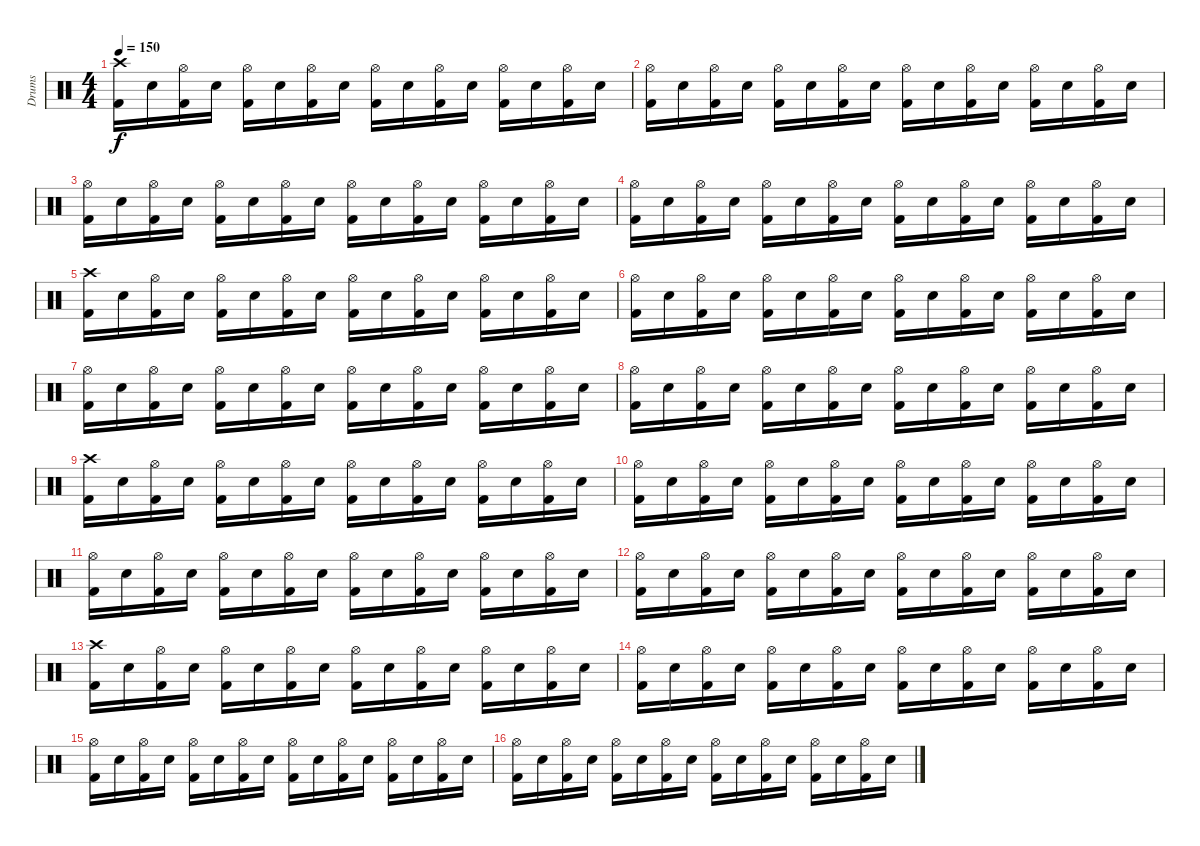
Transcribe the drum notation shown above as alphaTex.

\track ("Drums" "Drums") {instrument percussion}
\staff {score}
\articulation defaults
\ts (4 4)
\tempo 150
\clef neutral
\ks c
("Kick (hit) 2" "Crash high (hit)").16{dy f} "Electric Snare (hit)".16 ("Kick (hit) 2" "Hi-Hat (open)").16 "Electric Snare (hit)".16 ("Kick (hit) 2" "Hi-Hat (open)").16 "Electric Snare (hit)".16 ("Kick (hit) 2" "Hi-Hat (open)").16 "Electric Snare (hit)".16 ("Kick (hit) 2" "Hi-Hat (open)").16 "Electric Snare (hit)".16 ("Kick (hit) 2" "Hi-Hat (open)").16 "Electric Snare (hit)".16 ("Kick (hit) 2" "Hi-Hat (open)").16 "Electric Snare (hit)".16 ("Kick (hit) 2" "Hi-Hat (open)").16 "Electric Snare (hit)".16 |
("Kick (hit) 2" "Hi-Hat (open)").16 "Electric Snare (hit)".16 ("Kick (hit) 2" "Hi-Hat (open)").16 "Electric Snare (hit)".16 ("Kick (hit) 2" "Hi-Hat (open)").16 "Electric Snare (hit)".16 ("Kick (hit) 2" "Hi-Hat (open)").16 "Electric Snare (hit)".16 ("Kick (hit) 2" "Hi-Hat (open)").16 "Electric Snare (hit)".16 ("Kick (hit) 2" "Hi-Hat (open)").16 "Electric Snare (hit)".16 ("Kick (hit) 2" "Hi-Hat (open)").16 "Electric Snare (hit)".16 ("Kick (hit) 2" "Hi-Hat (open)").16 "Electric Snare (hit)".16 |
("Kick (hit) 2" "Hi-Hat (open)").16 "Electric Snare (hit)".16 ("Kick (hit) 2" "Hi-Hat (open)").16 "Electric Snare (hit)".16 ("Kick (hit) 2" "Hi-Hat (open)").16 "Electric Snare (hit)".16 ("Kick (hit) 2" "Hi-Hat (open)").16 "Electric Snare (hit)".16 ("Kick (hit) 2" "Hi-Hat (open)").16 "Electric Snare (hit)".16 ("Kick (hit) 2" "Hi-Hat (open)").16 "Electric Snare (hit)".16 ("Kick (hit) 2" "Hi-Hat (open)").16 "Electric Snare (hit)".16 ("Kick (hit) 2" "Hi-Hat (open)").16 "Electric Snare (hit)".16 |
("Kick (hit) 2" "Hi-Hat (open)").16 "Electric Snare (hit)".16 ("Kick (hit) 2" "Hi-Hat (open)").16 "Electric Snare (hit)".16 ("Kick (hit) 2" "Hi-Hat (open)").16 "Electric Snare (hit)".16 ("Kick (hit) 2" "Hi-Hat (open)").16 "Electric Snare (hit)".16 ("Kick (hit) 2" "Hi-Hat (open)").16 "Electric Snare (hit)".16 ("Kick (hit) 2" "Hi-Hat (open)").16 "Electric Snare (hit)".16 ("Kick (hit) 2" "Hi-Hat (open)").16 "Electric Snare (hit)".16 ("Kick (hit) 2" "Hi-Hat (open)").16 "Electric Snare (hit)".16 |
("Kick (hit) 2" "Crash high (hit)").16 "Electric Snare (hit)".16 ("Kick (hit) 2" "Hi-Hat (open)").16 "Electric Snare (hit)".16 ("Kick (hit) 2" "Hi-Hat (open)").16 "Electric Snare (hit)".16 ("Kick (hit) 2" "Hi-Hat (open)").16 "Electric Snare (hit)".16 ("Kick (hit) 2" "Hi-Hat (open)").16 "Electric Snare (hit)".16 ("Kick (hit) 2" "Hi-Hat (open)").16 "Electric Snare (hit)".16 ("Kick (hit) 2" "Hi-Hat (open)").16 "Electric Snare (hit)".16 ("Kick (hit) 2" "Hi-Hat (open)").16 "Electric Snare (hit)".16 |
("Kick (hit) 2" "Hi-Hat (open)").16 "Electric Snare (hit)".16 ("Kick (hit) 2" "Hi-Hat (open)").16 "Electric Snare (hit)".16 ("Kick (hit) 2" "Hi-Hat (open)").16 "Electric Snare (hit)".16 ("Kick (hit) 2" "Hi-Hat (open)").16 "Electric Snare (hit)".16 ("Kick (hit) 2" "Hi-Hat (open)").16 "Electric Snare (hit)".16 ("Kick (hit) 2" "Hi-Hat (open)").16 "Electric Snare (hit)".16 ("Kick (hit) 2" "Hi-Hat (open)").16 "Electric Snare (hit)".16 ("Kick (hit) 2" "Hi-Hat (open)").16 "Electric Snare (hit)".16 |
("Kick (hit) 2" "Hi-Hat (open)").16 "Electric Snare (hit)".16 ("Kick (hit) 2" "Hi-Hat (open)").16 "Electric Snare (hit)".16 ("Kick (hit) 2" "Hi-Hat (open)").16 "Electric Snare (hit)".16 ("Kick (hit) 2" "Hi-Hat (open)").16 "Electric Snare (hit)".16 ("Kick (hit) 2" "Hi-Hat (open)").16 "Electric Snare (hit)".16 ("Kick (hit) 2" "Hi-Hat (open)").16 "Electric Snare (hit)".16 ("Kick (hit) 2" "Hi-Hat (open)").16 "Electric Snare (hit)".16 ("Kick (hit) 2" "Hi-Hat (open)").16 "Electric Snare (hit)".16 |
("Kick (hit) 2" "Hi-Hat (open)").16 "Electric Snare (hit)".16 ("Kick (hit) 2" "Hi-Hat (open)").16 "Electric Snare (hit)".16 ("Kick (hit) 2" "Hi-Hat (open)").16 "Electric Snare (hit)".16 ("Kick (hit) 2" "Hi-Hat (open)").16 "Electric Snare (hit)".16 ("Kick (hit) 2" "Hi-Hat (open)").16 "Electric Snare (hit)".16 ("Kick (hit) 2" "Hi-Hat (open)").16 "Electric Snare (hit)".16 ("Kick (hit) 2" "Hi-Hat (open)").16 "Electric Snare (hit)".16 ("Kick (hit) 2" "Hi-Hat (open)").16 "Electric Snare (hit)".16 |
("Kick (hit) 2" "Crash high (hit)").16 "Electric Snare (hit)".16 ("Kick (hit) 2" "Hi-Hat (open)").16 "Electric Snare (hit)".16 ("Kick (hit) 2" "Hi-Hat (open)").16 "Electric Snare (hit)".16 ("Kick (hit) 2" "Hi-Hat (open)").16 "Electric Snare (hit)".16 ("Kick (hit) 2" "Hi-Hat (open)").16 "Electric Snare (hit)".16 ("Kick (hit) 2" "Hi-Hat (open)").16 "Electric Snare (hit)".16 ("Kick (hit) 2" "Hi-Hat (open)").16 "Electric Snare (hit)".16 ("Kick (hit) 2" "Hi-Hat (open)").16 "Electric Snare (hit)".16 |
("Kick (hit) 2" "Hi-Hat (open)").16 "Electric Snare (hit)".16 ("Kick (hit) 2" "Hi-Hat (open)").16 "Electric Snare (hit)".16 ("Kick (hit) 2" "Hi-Hat (open)").16 "Electric Snare (hit)".16 ("Kick (hit) 2" "Hi-Hat (open)").16 "Electric Snare (hit)".16 ("Kick (hit) 2" "Hi-Hat (open)").16 "Electric Snare (hit)".16 ("Kick (hit) 2" "Hi-Hat (open)").16 "Electric Snare (hit)".16 ("Kick (hit) 2" "Hi-Hat (open)").16 "Electric Snare (hit)".16 ("Kick (hit) 2" "Hi-Hat (open)").16 "Electric Snare (hit)".16 |
("Kick (hit) 2" "Hi-Hat (open)").16 "Electric Snare (hit)".16 ("Kick (hit) 2" "Hi-Hat (open)").16 "Electric Snare (hit)".16 ("Kick (hit) 2" "Hi-Hat (open)").16 "Electric Snare (hit)".16 ("Kick (hit) 2" "Hi-Hat (open)").16 "Electric Snare (hit)".16 ("Kick (hit) 2" "Hi-Hat (open)").16 "Electric Snare (hit)".16 ("Kick (hit) 2" "Hi-Hat (open)").16 "Electric Snare (hit)".16 ("Kick (hit) 2" "Hi-Hat (open)").16 "Electric Snare (hit)".16 ("Kick (hit) 2" "Hi-Hat (open)").16 "Electric Snare (hit)".16 |
("Kick (hit) 2" "Hi-Hat (open)").16 "Electric Snare (hit)".16 ("Kick (hit) 2" "Hi-Hat (open)").16 "Electric Snare (hit)".16 ("Kick (hit) 2" "Hi-Hat (open)").16 "Electric Snare (hit)".16 ("Kick (hit) 2" "Hi-Hat (open)").16 "Electric Snare (hit)".16 ("Kick (hit) 2" "Hi-Hat (open)").16 "Electric Snare (hit)".16 ("Kick (hit) 2" "Hi-Hat (open)").16 "Electric Snare (hit)".16 ("Kick (hit) 2" "Hi-Hat (open)").16 "Electric Snare (hit)".16 ("Kick (hit) 2" "Hi-Hat (open)").16 "Electric Snare (hit)".16 |
("Kick (hit) 2" "Crash high (hit)").16 "Electric Snare (hit)".16 ("Kick (hit) 2" "Hi-Hat (open)").16 "Electric Snare (hit)".16 ("Kick (hit) 2" "Hi-Hat (open)").16 "Electric Snare (hit)".16 ("Kick (hit) 2" "Hi-Hat (open)").16 "Electric Snare (hit)".16 ("Kick (hit) 2" "Hi-Hat (open)").16 "Electric Snare (hit)".16 ("Kick (hit) 2" "Hi-Hat (open)").16 "Electric Snare (hit)".16 ("Kick (hit) 2" "Hi-Hat (open)").16 "Electric Snare (hit)".16 ("Kick (hit) 2" "Hi-Hat (open)").16 "Electric Snare (hit)".16 |
("Kick (hit) 2" "Hi-Hat (open)").16 "Electric Snare (hit)".16 ("Kick (hit) 2" "Hi-Hat (open)").16 "Electric Snare (hit)".16 ("Kick (hit) 2" "Hi-Hat (open)").16 "Electric Snare (hit)".16 ("Kick (hit) 2" "Hi-Hat (open)").16 "Electric Snare (hit)".16 ("Kick (hit) 2" "Hi-Hat (open)").16 "Electric Snare (hit)".16 ("Kick (hit) 2" "Hi-Hat (open)").16 "Electric Snare (hit)".16 ("Kick (hit) 2" "Hi-Hat (open)").16 "Electric Snare (hit)".16 ("Kick (hit) 2" "Hi-Hat (open)").16 "Electric Snare (hit)".16 |
("Kick (hit) 2" "Hi-Hat (open)").16 "Electric Snare (hit)".16 ("Kick (hit) 2" "Hi-Hat (open)").16 "Electric Snare (hit)".16 ("Kick (hit) 2" "Hi-Hat (open)").16 "Electric Snare (hit)".16 ("Kick (hit) 2" "Hi-Hat (open)").16 "Electric Snare (hit)".16 ("Kick (hit) 2" "Hi-Hat (open)").16 "Electric Snare (hit)".16 ("Kick (hit) 2" "Hi-Hat (open)").16 "Electric Snare (hit)".16 ("Kick (hit) 2" "Hi-Hat (open)").16 "Electric Snare (hit)".16 ("Kick (hit) 2" "Hi-Hat (open)").16 "Electric Snare (hit)".16 |
("Kick (hit) 2" "Hi-Hat (open)").16 "Electric Snare (hit)".16 ("Kick (hit) 2" "Hi-Hat (open)").16 "Electric Snare (hit)".16 ("Kick (hit) 2" "Hi-Hat (open)").16 "Electric Snare (hit)".16 ("Kick (hit) 2" "Hi-Hat (open)").16 "Electric Snare (hit)".16 ("Kick (hit) 2" "Hi-Hat (open)").16 "Electric Snare (hit)".16 ("Kick (hit) 2" "Hi-Hat (open)").16 "Electric Snare (hit)".16 ("Kick (hit) 2" "Hi-Hat (open)").16 "Electric Snare (hit)".16 ("Kick (hit) 2" "Hi-Hat (open)").16 "Electric Snare (hit)".16
